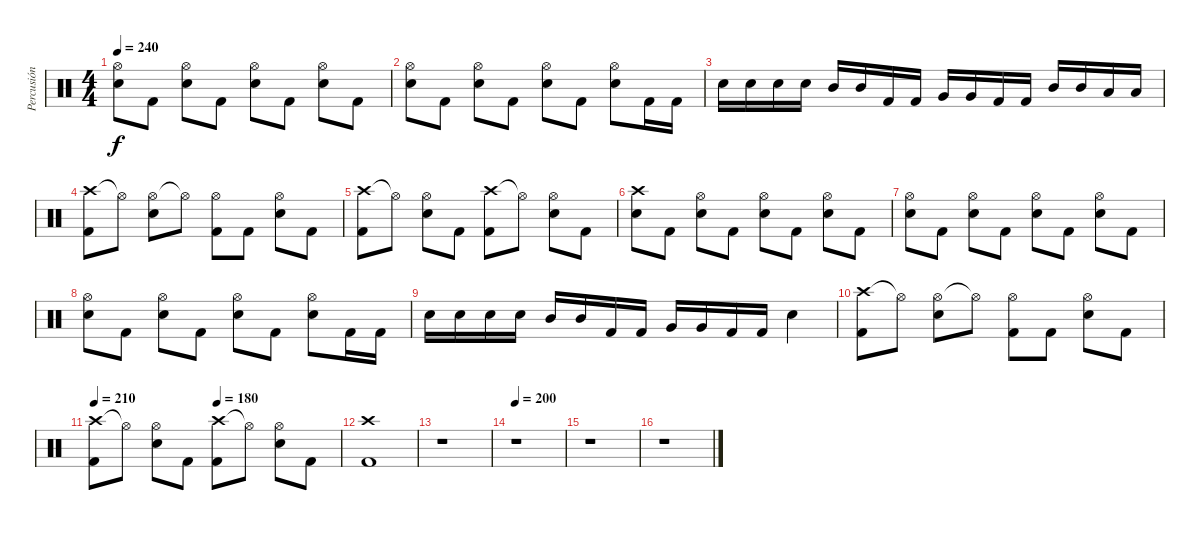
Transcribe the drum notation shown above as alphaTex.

\track ("Percusión" "Percusión") {instrument percussion}
\staff {score}
\articulation defaults
\ts (4 4)
\tempo 240
\clef neutral
\ks c
("Snare (hit) 2" "Hi-Hat (open)").8{dy f} "Kick (hit) 2".8 ("Snare (hit) 2" "Hi-Hat (open)").8 "Kick (hit) 2".8 ("Snare (hit) 2" "Hi-Hat (open)").8 "Kick (hit) 2".8 ("Snare (hit) 2" "Hi-Hat (open)").8 "Kick (hit) 2".8 |
("Snare (hit) 2" "Hi-Hat (open)").8 "Kick (hit) 2".8 ("Snare (hit) 2" "Hi-Hat (open)").8 "Kick (hit) 2".8 ("Snare (hit) 2" "Hi-Hat (open)").8 "Kick (hit) 2".8 ("Snare (hit) 2" "Hi-Hat (open)").8 "Kick (hit) 2".16 "Kick (hit) 2".16 |
"Snare (hit) 2".16 "Snare (hit) 2".16 "Snare (hit) 2".16 "Snare (hit) 2".16 "Mid Tom (hit)".16 "Mid Tom (hit)".16 "Kick (hit) 2".16 "Kick (hit) 2".16 "Very Low Tom (hit)".16 "Very Low Tom (hit)".16 "Kick (hit) 2".16 "Kick (hit) 2".16 "Mid Tom (hit)".16 "Mid Tom (hit)".16 "Low Tom (hit)".16 "Low Tom (hit)".16 |
("Crash high (hit)" "Kick (hit) 2").8 "Hi-Hat (open)"{t}.8 ("Hi-Hat (open)" "Snare (hit) 2").8 "Hi-Hat (open)"{t}.8 ("Hi-Hat (open)" "Kick (hit) 2").8 "Kick (hit) 2".8 ("Hi-Hat (open)" "Snare (hit) 2").8 "Kick (hit) 2".8 |
("Crash high (hit)" "Kick (hit) 2").8 "Hi-Hat (open)"{t}.8 ("Hi-Hat (open)" "Snare (hit) 2").8 "Kick (hit) 2".8 ("Crash high (hit)" "Kick (hit) 2").8 "Hi-Hat (open)"{t}.8 ("Hi-Hat (open)" "Snare (hit) 2").8 "Kick (hit) 2".8 |
("Crash high (hit)" "Snare (hit) 2").8 "Kick (hit) 2".8 ("Snare (hit) 2" "Hi-Hat (open)").8 "Kick (hit) 2".8 ("Snare (hit) 2" "Hi-Hat (open)").8 "Kick (hit) 2".8 ("Snare (hit) 2" "Hi-Hat (open)").8 "Kick (hit) 2".8 |
("Snare (hit) 2" "Hi-Hat (open)").8 "Kick (hit) 2".8 ("Snare (hit) 2" "Hi-Hat (open)").8 "Kick (hit) 2".8 ("Snare (hit) 2" "Hi-Hat (open)").8 "Kick (hit) 2".8 ("Snare (hit) 2" "Hi-Hat (open)").8 "Kick (hit) 2".8 |
("Snare (hit) 2" "Hi-Hat (open)").8 "Kick (hit) 2".8 ("Snare (hit) 2" "Hi-Hat (open)").8 "Kick (hit) 2".8 ("Snare (hit) 2" "Hi-Hat (open)").8 "Kick (hit) 2".8 ("Snare (hit) 2" "Hi-Hat (open)").8 "Kick (hit) 2".16 "Kick (hit) 2".16 |
"Snare (hit) 2".16 "Snare (hit) 2".16 "Snare (hit) 2".16 "Snare (hit) 2".16 "Mid Tom (hit)".16 "Mid Tom (hit)".16 "Kick (hit) 2".16 "Kick (hit) 2".16 "Very Low Tom (hit)".16 "Very Low Tom (hit)".16 "Kick (hit) 2".16 "Kick (hit) 2".16 "Snare (hit) 2".4 |
("Crash high (hit)" "Kick (hit) 2").8 "Hi-Hat (open)"{t}.8 ("Hi-Hat (open)" "Snare (hit) 2").8 "Hi-Hat (open)"{t}.8 ("Hi-Hat (open)" "Kick (hit) 2").8 "Kick (hit) 2".8 ("Hi-Hat (open)" "Snare (hit) 2").8 "Kick (hit) 2".8 |
\tempo 210
\tempo (180 0.5)
("Crash high (hit)" "Kick (hit) 2").8 "Hi-Hat (open)"{t}.8 ("Hi-Hat (open)" "Snare (hit) 2").8 "Kick (hit) 2".8 ("Crash high (hit)" "Kick (hit) 2").8 "Hi-Hat (open)"{t}.8 ("Hi-Hat (open)" "Snare (hit) 2").8 "Kick (hit) 2".8 |
("Crash high (hit)" "Kick (hit) 2").1 |
r.1 |
\tempo 200
r.1 |
r.1 |
r.1
